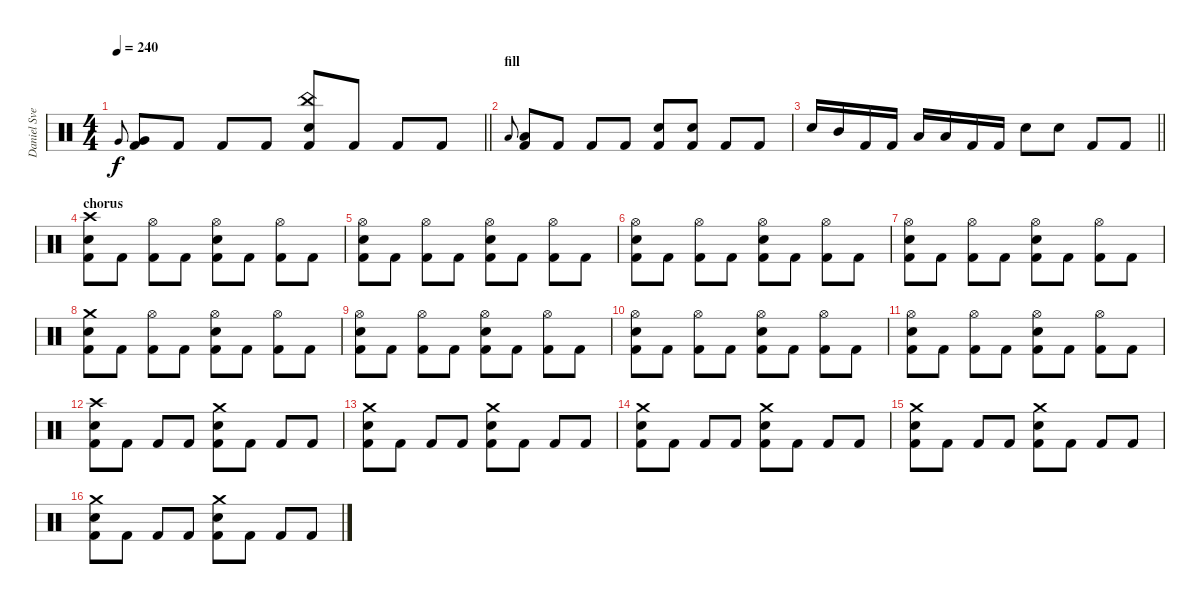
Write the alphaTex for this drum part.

\track ("Daniel Svensson" "Daniel Sve") {instrument percussion}
\staff {score}
\articulation defaults
\ts (4 4)
\tempo 240
\clef neutral
\barLineRight lightlight
\ks c "Very Low Tom (hit)".8{gr onbeat dy f}
("Very Low Tom (hit)" "Kick (hit) 2").8 "Kick (hit) 2".8 "Kick (hit) 2".8 "Kick (hit) 2".8 ("China (hit)" "Electric Snare (hit)" "Kick (hit) 2").8 "Kick (hit) 2".8 "Kick (hit) 2".8 "Kick (hit) 2".8 |
\section ("" "fill")
"Low Tom (hit)".8{gr onbeat} ("Low Tom (hit)" "Kick (hit) 2").8 "Kick (hit) 2".8 "Kick (hit) 2".8 "Kick (hit) 2".8 ("Electric Snare (hit)" "Kick (hit) 2").8 ("Electric Snare (hit)" "Kick (hit) 2").8 "Kick (hit) 2".8 "Kick (hit) 2".8 |
\barLineRight lightlight "Electric Snare (hit)".16 "Mid Tom (hit)".16 "Kick (hit) 2".16 "Kick (hit) 2".16 "Low Tom (hit)".16 "Low Tom (hit)".16 "Kick (hit) 2".16 "Kick (hit) 2".16 "Electric Snare (hit)".8 "Electric Snare (hit)".8 "Kick (hit) 2".8 "Kick (hit) 2".8
|
\section ("" "chorus")
("Crash high (hit)" "Electric Snare (hit)" "Kick (hit) 2").8 "Kick (hit) 2".8 ("Hi-Hat (open)" "Kick (hit) 2").8 "Kick (hit) 2".8 ("Hi-Hat (open)" "Electric Snare (hit)" "Kick (hit) 2").8 "Kick (hit) 2".8 ("Hi-Hat (open)" "Kick (hit) 2").8 "Kick (hit) 2".8 |
("Hi-Hat (open)" "Electric Snare (hit)" "Kick (hit) 2").8 "Kick (hit) 2".8 ("Hi-Hat (open)" "Kick (hit) 2").8 "Kick (hit) 2".8 ("Hi-Hat (open)" "Electric Snare (hit)" "Kick (hit) 2").8 "Kick (hit) 2".8 ("Hi-Hat (open)" "Kick (hit) 2").8 "Kick (hit) 2".8 |
("Hi-Hat (open)" "Electric Snare (hit)" "Kick (hit) 2").8 "Kick (hit) 2".8 ("Hi-Hat (open)" "Kick (hit) 2").8 "Kick (hit) 2".8 ("Hi-Hat (open)" "Electric Snare (hit)" "Kick (hit) 2").8 "Kick (hit) 2".8 ("Hi-Hat (open)" "Kick (hit) 2").8 "Kick (hit) 2".8 |
("Hi-Hat (open)" "Electric Snare (hit)" "Kick (hit) 2").8 "Kick (hit) 2".8 ("Hi-Hat (open)" "Kick (hit) 2").8 "Kick (hit) 2".8 ("Hi-Hat (open)" "Electric Snare (hit)" "Kick (hit) 2").8 "Kick (hit) 2".8 ("Hi-Hat (open)" "Kick (hit) 2").8 "Kick (hit) 2".8 |
("Crash medium (hit)" "Electric Snare (hit)" "Kick (hit) 2").8 "Kick (hit) 2".8 ("Hi-Hat (open)" "Kick (hit) 2").8 "Kick (hit) 2".8 ("Hi-Hat (open)" "Electric Snare (hit)" "Kick (hit) 2").8 "Kick (hit) 2".8 ("Hi-Hat (open)" "Kick (hit) 2").8 "Kick (hit) 2".8 |
("Hi-Hat (open)" "Electric Snare (hit)" "Kick (hit) 2").8 "Kick (hit) 2".8 ("Hi-Hat (open)" "Kick (hit) 2").8 "Kick (hit) 2".8 ("Hi-Hat (open)" "Electric Snare (hit)" "Kick (hit) 2").8 "Kick (hit) 2".8 ("Hi-Hat (open)" "Kick (hit) 2").8 "Kick (hit) 2".8 |
("Hi-Hat (open)" "Electric Snare (hit)" "Kick (hit) 2").8 "Kick (hit) 2".8 ("Hi-Hat (open)" "Kick (hit) 2").8 "Kick (hit) 2".8 ("Hi-Hat (open)" "Electric Snare (hit)" "Kick (hit) 2").8 "Kick (hit) 2".8 ("Hi-Hat (open)" "Kick (hit) 2").8 "Kick (hit) 2".8 |
("Hi-Hat (open)" "Electric Snare (hit)" "Kick (hit) 2").8 "Kick (hit) 2".8 ("Hi-Hat (open)" "Kick (hit) 2").8 "Kick (hit) 2".8 ("Hi-Hat (open)" "Electric Snare (hit)" "Kick (hit) 2").8 "Kick (hit) 2".8 ("Hi-Hat (open)" "Kick (hit) 2").8 "Kick (hit) 2".8 |
("Crash high (hit)" "Electric Snare (hit)" "Kick (hit) 2").8 "Kick (hit) 2".8 "Kick (hit) 2".8 "Kick (hit) 2".8 ("Crash medium (hit)" "Electric Snare (hit)" "Kick (hit) 2").8 "Kick (hit) 2".8 "Kick (hit) 2".8 "Kick (hit) 2".8 |
("Crash medium (hit)" "Electric Snare (hit)" "Kick (hit) 2").8 "Kick (hit) 2".8 "Kick (hit) 2".8 "Kick (hit) 2".8 ("Crash medium (hit)" "Electric Snare (hit)" "Kick (hit) 2").8 "Kick (hit) 2".8 "Kick (hit) 2".8 "Kick (hit) 2".8 |
("Crash medium (hit)" "Electric Snare (hit)" "Kick (hit) 2").8 "Kick (hit) 2".8 "Kick (hit) 2".8 "Kick (hit) 2".8 ("Crash medium (hit)" "Electric Snare (hit)" "Kick (hit) 2").8 "Kick (hit) 2".8 "Kick (hit) 2".8 "Kick (hit) 2".8 |
("Crash medium (hit)" "Electric Snare (hit)" "Kick (hit) 2").8 "Kick (hit) 2".8 "Kick (hit) 2".8 "Kick (hit) 2".8 ("Crash medium (hit)" "Electric Snare (hit)" "Kick (hit) 2").8 "Kick (hit) 2".8 "Kick (hit) 2".8 "Kick (hit) 2".8 |
("Crash medium (hit)" "Electric Snare (hit)" "Kick (hit) 2").8 "Kick (hit) 2".8 "Kick (hit) 2".8 "Kick (hit) 2".8 ("Crash medium (hit)" "Electric Snare (hit)" "Kick (hit) 2").8 "Kick (hit) 2".8 "Kick (hit) 2".8 "Kick (hit) 2".8
